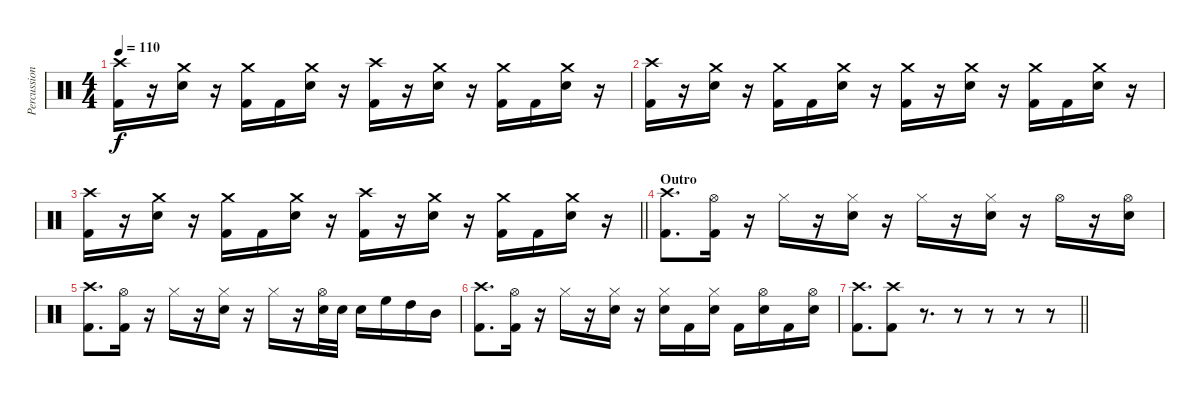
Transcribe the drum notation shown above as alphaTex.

\track ("Percussion" "Percussion") {instrument percussion}
\staff {score}
\articulation defaults
\ts (4 4)
\tempo 110
\clef neutral
\ks c
("Crash high (hit)" "Kick (hit) 2").16{dy f} r.16 ("Crash medium (hit)" "Electric Snare (hit)").16 r.16 ("Crash medium (hit)" "Kick (hit) 2").16 "Kick (hit) 2".16 ("Crash medium (hit)" "Electric Snare (hit)").16 r.16 ("Crash high (hit)" "Kick (hit) 2").16 r.16 ("Crash medium (hit)" "Electric Snare (hit)").16 r.16 ("Crash medium (hit)" "Kick (hit) 2").16 "Kick (hit) 2".16 ("Crash medium (hit)" "Electric Snare (hit)").16 r.16 |
("Crash high (hit)" "Kick (hit) 2").16 r.16 ("Crash medium (hit)" "Electric Snare (hit)").16 r.16 ("Crash medium (hit)" "Kick (hit) 2").16 "Kick (hit) 2".16 ("Crash medium (hit)" "Electric Snare (hit)").16 r.16 ("Crash medium (hit)" "Kick (hit) 2").16 r.16 ("Crash medium (hit)" "Electric Snare (hit)").16 r.16 ("Crash medium (hit)" "Kick (hit) 2").16 "Kick (hit) 2".16 ("Crash medium (hit)" "Electric Snare (hit)").16 r.16 |
\barLineRight lightlight
("Crash high (hit)" "Kick (hit) 2").16 r.16 ("Crash medium (hit)" "Electric Snare (hit)").16 r.16 ("Crash medium (hit)" "Kick (hit) 2").16 "Kick (hit) 2".16 ("Crash medium (hit)" "Electric Snare (hit)").16 r.16 ("Crash high (hit)" "Kick (hit) 2").16 r.16 ("Crash medium (hit)" "Electric Snare (hit)").16 r.16 ("Crash medium (hit)" "Kick (hit) 2").16 "Kick (hit) 2".16 ("Crash medium (hit)" "Electric Snare (hit)").16 r.16 |
\section ("" "Outro")
("Crash high (hit)" "Kick (hit) 2").8{d} ("Hi-Hat (open)" "Kick (hit) 2").16 r.16 "Hi-Hat (closed)".16 r.16 ("Hi-Hat (closed)" "Electric Snare (hit)").16 r.16 "Hi-Hat (closed)".16 r.16 ("Hi-Hat (closed)" "Electric Snare (hit)").16 r.16 "Hi-Hat (open)".16 r.16 ("Hi-Hat (open)" "Electric Snare (hit)").16 |
("Crash high (hit)" "Kick (hit) 2").8{d} ("Hi-Hat (open)" "Kick (hit) 2").16 r.16 "Hi-Hat (closed)".16 r.16 ("Hi-Hat (closed)" "Electric Snare (hit)").16 r.16 "Hi-Hat (closed)".16 r.16 ("Hi-Hat (open)" "Electric Snare (hit)").32 "Electric Snare (hit)".32 "Electric Snare (hit)".16 "High Floor Tom (hit)".16 "High Tom (hit)".16 "Mid Tom (hit)".16 |
("Crash high (hit)" "Kick (hit) 2").8{d} ("Hi-Hat (open)" "Kick (hit) 2").16 r.16 "Hi-Hat (closed)".16 r.16 ("Hi-Hat (closed)" "Electric Snare (hit)").16 r.16 ("Hi-Hat (closed)" "Electric Snare (hit)").16 "Kick (hit) 2".16 ("Hi-Hat (closed)" "Electric Snare (hit)").16 "Kick (hit) 2".16 ("Hi-Hat (open)" "Electric Snare (hit)").16 "Kick (hit) 2".16 ("Hi-Hat (open)" "Electric Snare (hit)").16 |
\barLineRight lightlight
("Crash high (hit)" "Kick (hit) 2").8{d} ("Crash high (hit)" "Kick (hit) 2").8 r.8{d} r.8 r.8 r.8 r.8
